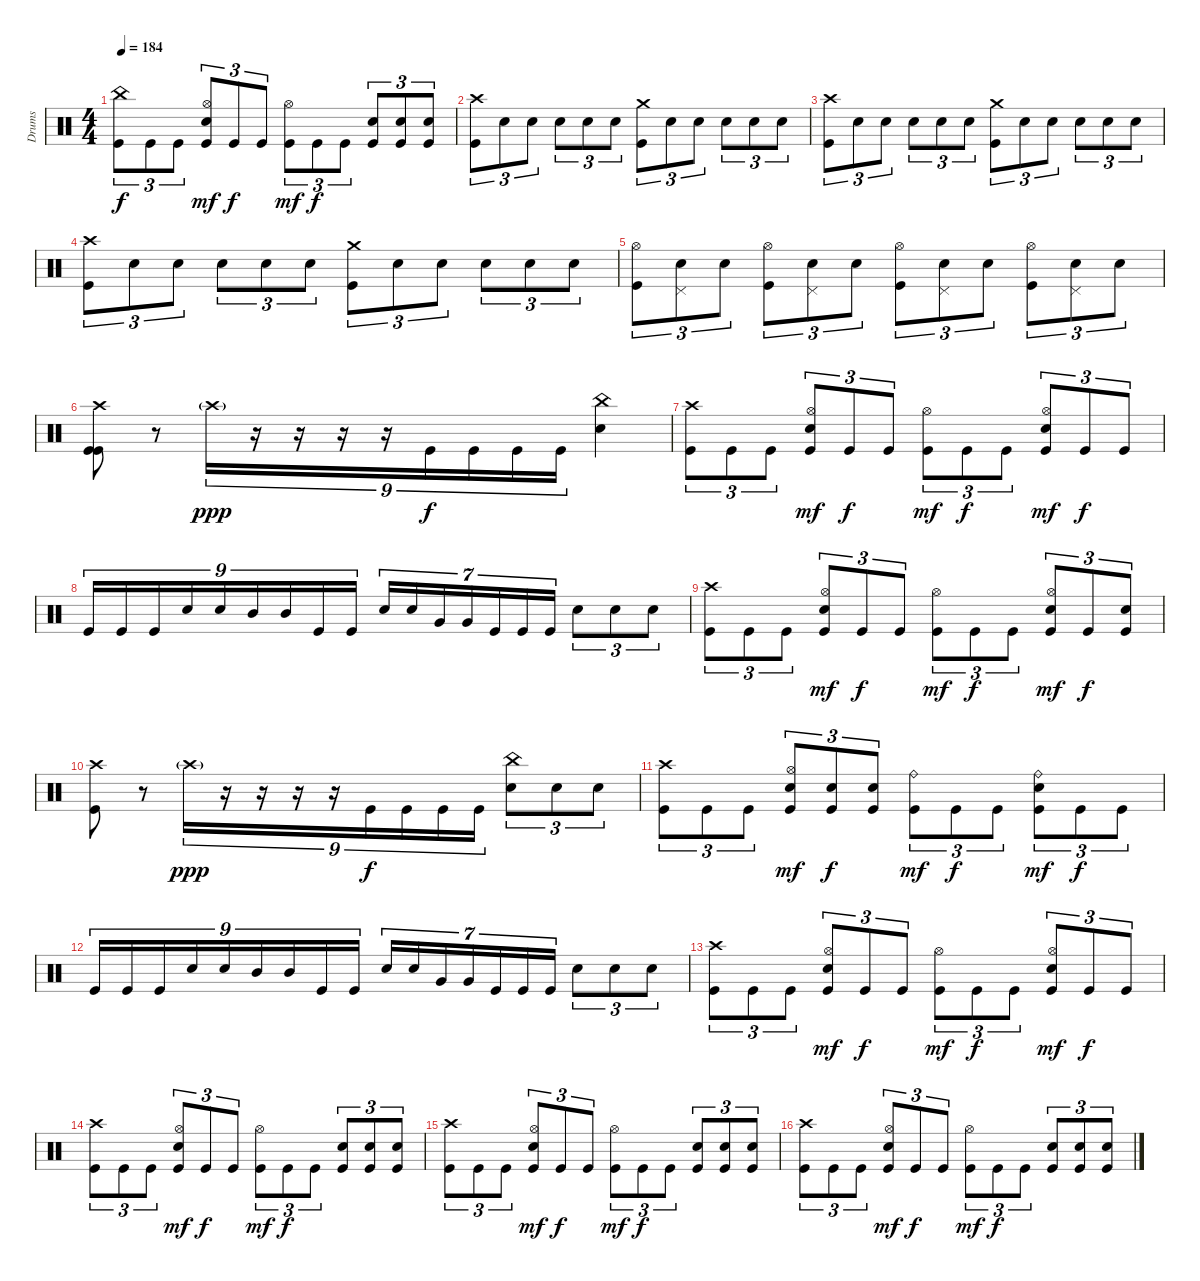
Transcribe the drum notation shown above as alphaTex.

\track ("Drums" "Drums") {instrument percussion}
\staff {score}
\articulation defaults
\ts (4 4)
\tempo 184
\clef neutral
\ks c
("China (hit)" "Kick (hit)").8{tu (3 2) dy f} "Kick (hit)".8{tu (3 2)} "Kick (hit)".8{tu (3 2)} ("Hi-Hat (open)" "Electric Snare (hit)" "Kick (hit)").8{tu (3 2) dy mf} "Kick (hit)".8{tu (3 2) dy f} "Kick (hit)".8{tu (3 2)} ("Hi-Hat (open)" "Kick (hit)").8{tu (3 2) dy mf} "Kick (hit)".8{tu (3 2) dy f} "Kick (hit)".8{tu (3 2)} ("Electric Snare (hit)" "Kick (hit)").8{tu (3 2)} ("Electric Snare (hit)" "Kick (hit)").8{tu (3 2)} ("Electric Snare (hit)" "Kick (hit)").8{tu (3 2)} |
("Crash high (hit)" "Kick (hit)").8{tu (3 2)} "Electric Snare (hit)".8{tu (3 2)} "Electric Snare (hit)".8{tu (3 2)} "Electric Snare (hit)".8{tu (3 2)} "Electric Snare (hit)".8{tu (3 2)} "Electric Snare (hit)".8{tu (3 2)} ("Crash medium (hit)" "Kick (hit)").8{tu (3 2)} "Electric Snare (hit)".8{tu (3 2)} "Electric Snare (hit)".8{tu (3 2)} "Electric Snare (hit)".8{tu (3 2)} "Electric Snare (hit)".8{tu (3 2)} "Electric Snare (hit)".8{tu (3 2)} |
("Crash high (hit)" "Kick (hit)").8{tu (3 2)} "Electric Snare (hit)".8{tu (3 2)} "Electric Snare (hit)".8{tu (3 2)} "Electric Snare (hit)".8{tu (3 2)} "Electric Snare (hit)".8{tu (3 2)} "Electric Snare (hit)".8{tu (3 2)} ("Crash medium (hit)" "Kick (hit)").8{tu (3 2)} "Electric Snare (hit)".8{tu (3 2)} "Electric Snare (hit)".8{tu (3 2)} "Electric Snare (hit)".8{tu (3 2)} "Electric Snare (hit)".8{tu (3 2)} "Electric Snare (hit)".8{tu (3 2)} |
("Crash high (hit)" "Kick (hit)").8{tu (3 2)} "Electric Snare (hit)".8{tu (3 2)} "Electric Snare (hit)".8{tu (3 2)} "Electric Snare (hit)".8{tu (3 2)} "Electric Snare (hit)".8{tu (3 2)} "Electric Snare (hit)".8{tu (3 2)} ("Crash medium (hit)" "Kick (hit)").8{tu (3 2)} "Electric Snare (hit)".8{tu (3 2)} "Electric Snare (hit)".8{tu (3 2)} "Electric Snare (hit)".8{tu (3 2)} "Electric Snare (hit)".8{tu (3 2)} "Electric Snare (hit)".8{tu (3 2)} |
("Hi-Hat (open)" "Kick (hit)").8{tu (3 2)} ("Pedal Hi-Hat (hit)" "Electric Snare (hit)").8{tu (3 2)} "Electric Snare (hit)".8{tu (3 2)} ("Hi-Hat (open)" "Kick (hit)").8{tu (3 2)} ("Pedal Hi-Hat (hit)" "Electric Snare (hit)").8{tu (3 2)} "Electric Snare (hit)".8{tu (3 2)} ("Hi-Hat (open)" "Kick (hit)").8{tu (3 2)} ("Pedal Hi-Hat (hit)" "Electric Snare (hit)").8{tu (3 2)} "Electric Snare (hit)".8{tu (3 2)} ("Hi-Hat (open)" "Kick (hit)").8{tu (3 2)} ("Pedal Hi-Hat (hit)" "Electric Snare (hit)").8{tu (3 2)} "Electric Snare (hit)".8{tu (3 2)} |
("Crash high (hit)" "Kick (hit)" "Kick (hit)").8 r.8 "Crash high (hit)"{g}.16{tu (9 8) dy ppp} r.16{tu (9 8)} r.16{tu (9 8)} r.16{tu (9 8)} r.16{tu (9 8)} "Kick (hit)".16{tu (9 8) dy f} "Kick (hit)".16{tu (9 8)} "Kick (hit)".16{tu (9 8)} "Kick (hit)".16{tu (9 8)} ("China (hit)" "Electric Snare (hit)").4 |
("Crash high (hit)" "Kick (hit)").8{tu (3 2)} "Kick (hit)".8{tu (3 2)} "Kick (hit)".8{tu (3 2)} ("Hi-Hat (open)" "Electric Snare (hit)" "Kick (hit)").8{tu (3 2) dy mf} "Kick (hit)".8{tu (3 2) dy f} "Kick (hit)".8{tu (3 2)} ("Hi-Hat (open)" "Kick (hit)").8{tu (3 2) dy mf} "Kick (hit)".8{tu (3 2) dy f} "Kick (hit)".8{tu (3 2)} ("Hi-Hat (open)" "Electric Snare (hit)" "Kick (hit)").8{tu (3 2) dy mf} "Kick (hit)".8{tu (3 2) dy f} "Kick (hit)".8{tu (3 2)} |
"Kick (hit)".16{tu (9 8)} "Kick (hit)".16{tu (9 8)} "Kick (hit)".16{tu (9 8)} "Electric Snare (hit)".16{tu (9 8)} "Electric Snare (hit)".16{tu (9 8)} "Mid Tom (hit)".16{tu (9 8)} "Mid Tom (hit)".16{tu (9 8)} "Kick (hit)".16{tu (9 8)} "Kick (hit)".16{tu (9 8)} "Electric Snare (hit)".16{tu (7 4)} "Electric Snare (hit)".16{tu (7 4)} "Very Low Tom (hit)".16{tu (7 4)} "Very Low Tom (hit)".16{tu (7 4)} "Kick (hit)".16{tu (7 4)} "Kick (hit)".16{tu (7 4)} "Kick (hit)".16{tu (7 4)} "Electric Snare (hit)".8{tu (3 2)} "Electric Snare (hit)".8{tu (3 2)} "Electric Snare (hit)".8{tu (3 2)} |
("Crash high (hit)" "Kick (hit)").8{tu (3 2)} "Kick (hit)".8{tu (3 2)} "Kick (hit)".8{tu (3 2)} ("Hi-Hat (open)" "Electric Snare (hit)" "Kick (hit)").8{tu (3 2) dy mf} "Kick (hit)".8{tu (3 2) dy f} "Kick (hit)".8{tu (3 2)} ("Hi-Hat (open)" "Kick (hit)").8{tu (3 2) dy mf} "Kick (hit)".8{tu (3 2) dy f} "Kick (hit)".8{tu (3 2)} ("Hi-Hat (open)" "Electric Snare (hit)" "Kick (hit)").8{tu (3 2) dy mf} "Kick (hit)".8{tu (3 2) dy f} ("Electric Snare (hit)" "Kick (hit)").8{tu (3 2)} |
("Crash high (hit)" "Kick (hit)").8 r.8 "Crash high (hit)"{g}.16{tu (9 8) dy ppp} r.16{tu (9 8)} r.16{tu (9 8)} r.16{tu (9 8)} r.16{tu (9 8)} "Kick (hit)".16{tu (9 8) dy f} "Kick (hit)".16{tu (9 8)} "Kick (hit)".16{tu (9 8)} "Kick (hit)".16{tu (9 8)} ("China (hit)" "Electric Snare (hit)").8{tu (3 2)} "Electric Snare (hit)".8{tu (3 2)} "Electric Snare (hit)".8{tu (3 2)} |
("Crash high (hit)" "Kick (hit)").8{tu (3 2)} "Kick (hit)".8{tu (3 2)} "Kick (hit)".8{tu (3 2)} ("Hi-Hat (open)" "Electric Snare (hit)" "Kick (hit)").8{tu (3 2) dy mf} ("Electric Snare (hit)" "Kick (hit)").8{tu (3 2) dy f} ("Electric Snare (hit)" "Kick (hit)").8{tu (3 2)} ("Ride (bell)" "Kick (hit)").8{tu (3 2) dy mf} "Kick (hit)".8{tu (3 2) dy f} "Kick (hit)".8{tu (3 2)} ("Ride (bell)" "Electric Snare (hit)" "Kick (hit)").8{tu (3 2) dy mf} "Kick (hit)".8{tu (3 2) dy f} "Kick (hit)".8{tu (3 2)} |
"Kick (hit)".16{tu (9 8)} "Kick (hit)".16{tu (9 8)} "Kick (hit)".16{tu (9 8)} "Electric Snare (hit)".16{tu (9 8)} "Electric Snare (hit)".16{tu (9 8)} "Mid Tom (hit)".16{tu (9 8)} "Mid Tom (hit)".16{tu (9 8)} "Kick (hit)".16{tu (9 8)} "Kick (hit)".16{tu (9 8)} "Electric Snare (hit)".16{tu (7 4)} "Electric Snare (hit)".16{tu (7 4)} "Very Low Tom (hit)".16{tu (7 4)} "Very Low Tom (hit)".16{tu (7 4)} "Kick (hit)".16{tu (7 4)} "Kick (hit)".16{tu (7 4)} "Kick (hit)".16{tu (7 4)} "Electric Snare (hit)".8{tu (3 2)} "Electric Snare (hit)".8{tu (3 2)} "Electric Snare (hit)".8{tu (3 2)} |
("Crash high (hit)" "Kick (hit)").8{tu (3 2)} "Kick (hit)".8{tu (3 2)} "Kick (hit)".8{tu (3 2)} ("Hi-Hat (open)" "Electric Snare (hit)" "Kick (hit)").8{tu (3 2) dy mf} "Kick (hit)".8{tu (3 2) dy f} "Kick (hit)".8{tu (3 2)} ("Hi-Hat (open)" "Kick (hit)").8{tu (3 2) dy mf} "Kick (hit)".8{tu (3 2) dy f} "Kick (hit)".8{tu (3 2)} ("Hi-Hat (open)" "Electric Snare (hit)" "Kick (hit)").8{tu (3 2) dy mf} "Kick (hit)".8{tu (3 2) dy f} "Kick (hit)".8{tu (3 2)} |
("Crash high (hit)" "Kick (hit)").8{tu (3 2)} "Kick (hit)".8{tu (3 2)} "Kick (hit)".8{tu (3 2)} ("Hi-Hat (open)" "Electric Snare (hit)" "Kick (hit)").8{tu (3 2) dy mf} "Kick (hit)".8{tu (3 2) dy f} "Kick (hit)".8{tu (3 2)} ("Hi-Hat (open)" "Kick (hit)").8{tu (3 2) dy mf} "Kick (hit)".8{tu (3 2) dy f} "Kick (hit)".8{tu (3 2)} ("Electric Snare (hit)" "Kick (hit)").8{tu (3 2)} ("Electric Snare (hit)" "Kick (hit)").8{tu (3 2)} ("Electric Snare (hit)" "Kick (hit)").8{tu (3 2)} |
("Crash high (hit)" "Kick (hit)").8{tu (3 2)} "Kick (hit)".8{tu (3 2)} "Kick (hit)".8{tu (3 2)} ("Hi-Hat (open)" "Electric Snare (hit)" "Kick (hit)").8{tu (3 2) dy mf} "Kick (hit)".8{tu (3 2) dy f} "Kick (hit)".8{tu (3 2)} ("Hi-Hat (open)" "Kick (hit)").8{tu (3 2) dy mf} "Kick (hit)".8{tu (3 2) dy f} "Kick (hit)".8{tu (3 2)} ("Electric Snare (hit)" "Kick (hit)").8{tu (3 2)} ("Electric Snare (hit)" "Kick (hit)").8{tu (3 2)} ("Electric Snare (hit)" "Kick (hit)").8{tu (3 2)} |
("Crash high (hit)" "Kick (hit)").8{tu (3 2)} "Kick (hit)".8{tu (3 2)} "Kick (hit)".8{tu (3 2)} ("Hi-Hat (open)" "Electric Snare (hit)" "Kick (hit)").8{tu (3 2) dy mf} "Kick (hit)".8{tu (3 2) dy f} "Kick (hit)".8{tu (3 2)} ("Hi-Hat (open)" "Kick (hit)").8{tu (3 2) dy mf} "Kick (hit)".8{tu (3 2) dy f} "Kick (hit)".8{tu (3 2)} ("Electric Snare (hit)" "Kick (hit)").8{tu (3 2)} ("Electric Snare (hit)" "Kick (hit)").8{tu (3 2)} ("Electric Snare (hit)" "Kick (hit)").8{tu (3 2)}
